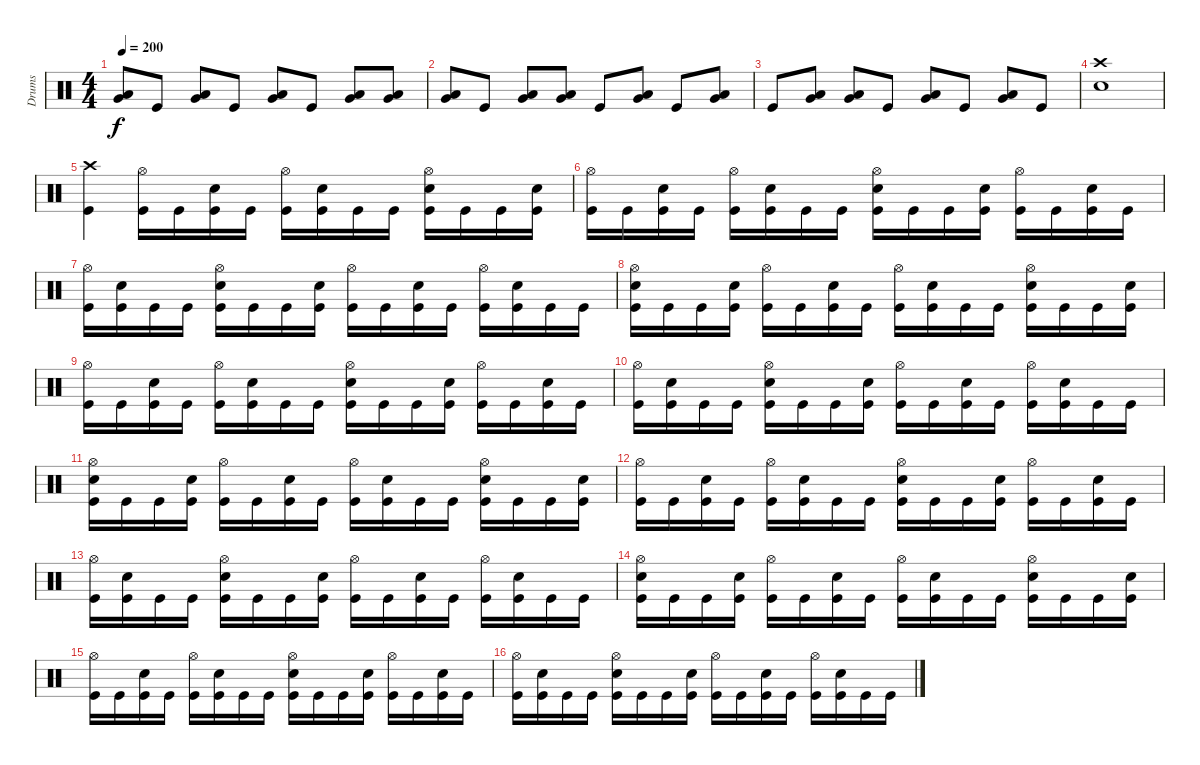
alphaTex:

\track ("Drums" "Drums") {instrument percussion}
\staff {score}
\articulation defaults
\ts (4 4)
\tempo 200
\clef neutral
\ks c
("Low Tom (hit)" "Very Low Tom (hit)").8{dy f} "Kick (hit)".8 ("Low Tom (hit)" "Very Low Tom (hit)").8 "Kick (hit)".8 ("Low Tom (hit)" "Very Low Tom (hit)").8 "Kick (hit)".8 ("Low Tom (hit)" "Very Low Tom (hit)").8 ("Low Tom (hit)" "Very Low Tom (hit)").8 |
("Low Tom (hit)" "Very Low Tom (hit)").8 "Kick (hit)".8 ("Low Tom (hit)" "Very Low Tom (hit)").8 ("Low Tom (hit)" "Very Low Tom (hit)").8 "Kick (hit)".8 ("Low Tom (hit)" "Very Low Tom (hit)").8 "Kick (hit)".8 ("Low Tom (hit)" "Very Low Tom (hit)").8 |
"Kick (hit)".8 ("Low Tom (hit)" "Very Low Tom (hit)").8 ("Low Tom (hit)" "Very Low Tom (hit)").8 "Kick (hit)".8 ("Low Tom (hit)" "Very Low Tom (hit)").8 "Kick (hit)".8 ("Low Tom (hit)" "Very Low Tom (hit)").8 "Kick (hit)".8 |
("Crash high (hit)" "Snare (hit) 2").1 |
("Crash high (hit)" "Kick (hit)").4 ("Hi-Hat (open)" "Kick (hit)").16 "Kick (hit)".16 ("Snare (hit) 2" "Kick (hit)").16 "Kick (hit)".16 ("Hi-Hat (open)" "Kick (hit)").16 ("Snare (hit) 2" "Kick (hit)").16 "Kick (hit)".16 "Kick (hit)".16 ("Hi-Hat (open)" "Snare (hit) 2" "Kick (hit)").16 "Kick (hit)".16 "Kick (hit)".16 ("Snare (hit) 2" "Kick (hit)").16 |
("Hi-Hat (open)" "Kick (hit)").16 "Kick (hit)".16 ("Snare (hit) 2" "Kick (hit)").16 "Kick (hit)".16 ("Hi-Hat (open)" "Kick (hit)").16 ("Snare (hit) 2" "Kick (hit)").16 "Kick (hit)".16 "Kick (hit)".16 ("Hi-Hat (open)" "Snare (hit) 2" "Kick (hit)").16 "Kick (hit)".16 "Kick (hit)".16 ("Snare (hit) 2" "Kick (hit)").16 ("Hi-Hat (open)" "Kick (hit)").16 "Kick (hit)".16 ("Snare (hit) 2" "Kick (hit)").16 "Kick (hit)".16 |
("Hi-Hat (open)" "Kick (hit)").16 ("Snare (hit) 2" "Kick (hit)").16 "Kick (hit)".16 "Kick (hit)".16 ("Hi-Hat (open)" "Snare (hit) 2" "Kick (hit)").16 "Kick (hit)".16 "Kick (hit)".16 ("Snare (hit) 2" "Kick (hit)").16 ("Hi-Hat (open)" "Kick (hit)").16 "Kick (hit)".16 ("Snare (hit) 2" "Kick (hit)").16 "Kick (hit)".16 ("Hi-Hat (open)" "Kick (hit)").16 ("Snare (hit) 2" "Kick (hit)").16 "Kick (hit)".16 "Kick (hit)".16 |
("Hi-Hat (open)" "Snare (hit) 2" "Kick (hit)").16 "Kick (hit)".16 "Kick (hit)".16 ("Snare (hit) 2" "Kick (hit)").16 ("Hi-Hat (open)" "Kick (hit)").16 "Kick (hit)".16 ("Snare (hit) 2" "Kick (hit)").16 "Kick (hit)".16 ("Hi-Hat (open)" "Kick (hit)").16 ("Snare (hit) 2" "Kick (hit)").16 "Kick (hit)".16 "Kick (hit)".16 ("Hi-Hat (open)" "Snare (hit) 2" "Kick (hit)").16 "Kick (hit)".16 "Kick (hit)".16 ("Snare (hit) 2" "Kick (hit)").16 |
("Hi-Hat (open)" "Kick (hit)").16 "Kick (hit)".16 ("Snare (hit) 2" "Kick (hit)").16 "Kick (hit)".16 ("Hi-Hat (open)" "Kick (hit)").16 ("Snare (hit) 2" "Kick (hit)").16 "Kick (hit)".16 "Kick (hit)".16 ("Hi-Hat (open)" "Snare (hit) 2" "Kick (hit)").16 "Kick (hit)".16 "Kick (hit)".16 ("Snare (hit) 2" "Kick (hit)").16 ("Hi-Hat (open)" "Kick (hit)").16 "Kick (hit)".16 ("Snare (hit) 2" "Kick (hit)").16 "Kick (hit)".16 |
("Hi-Hat (open)" "Kick (hit)").16 ("Snare (hit) 2" "Kick (hit)").16 "Kick (hit)".16 "Kick (hit)".16 ("Hi-Hat (open)" "Snare (hit) 2" "Kick (hit)").16 "Kick (hit)".16 "Kick (hit)".16 ("Snare (hit) 2" "Kick (hit)").16 ("Hi-Hat (open)" "Kick (hit)").16 "Kick (hit)".16 ("Snare (hit) 2" "Kick (hit)").16 "Kick (hit)".16 ("Hi-Hat (open)" "Kick (hit)").16 ("Snare (hit) 2" "Kick (hit)").16 "Kick (hit)".16 "Kick (hit)".16 |
("Hi-Hat (open)" "Snare (hit) 2" "Kick (hit)").16 "Kick (hit)".16 "Kick (hit)".16 ("Snare (hit) 2" "Kick (hit)").16 ("Hi-Hat (open)" "Kick (hit)").16 "Kick (hit)".16 ("Snare (hit) 2" "Kick (hit)").16 "Kick (hit)".16 ("Hi-Hat (open)" "Kick (hit)").16 ("Snare (hit) 2" "Kick (hit)").16 "Kick (hit)".16 "Kick (hit)".16 ("Hi-Hat (open)" "Snare (hit) 2" "Kick (hit)").16 "Kick (hit)".16 "Kick (hit)".16 ("Snare (hit) 2" "Kick (hit)").16 |
("Hi-Hat (open)" "Kick (hit)").16 "Kick (hit)".16 ("Snare (hit) 2" "Kick (hit)").16 "Kick (hit)".16 ("Hi-Hat (open)" "Kick (hit)").16 ("Snare (hit) 2" "Kick (hit)").16 "Kick (hit)".16 "Kick (hit)".16 ("Hi-Hat (open)" "Snare (hit) 2" "Kick (hit)").16 "Kick (hit)".16 "Kick (hit)".16 ("Snare (hit) 2" "Kick (hit)").16 ("Hi-Hat (open)" "Kick (hit)").16 "Kick (hit)".16 ("Snare (hit) 2" "Kick (hit)").16 "Kick (hit)".16 |
("Hi-Hat (open)" "Kick (hit)").16 ("Snare (hit) 2" "Kick (hit)").16 "Kick (hit)".16 "Kick (hit)".16 ("Hi-Hat (open)" "Snare (hit) 2" "Kick (hit)").16 "Kick (hit)".16 "Kick (hit)".16 ("Snare (hit) 2" "Kick (hit)").16 ("Hi-Hat (open)" "Kick (hit)").16 "Kick (hit)".16 ("Snare (hit) 2" "Kick (hit)").16 "Kick (hit)".16 ("Hi-Hat (open)" "Kick (hit)").16 ("Snare (hit) 2" "Kick (hit)").16 "Kick (hit)".16 "Kick (hit)".16 |
("Hi-Hat (open)" "Snare (hit) 2" "Kick (hit)").16 "Kick (hit)".16 "Kick (hit)".16 ("Snare (hit) 2" "Kick (hit)").16 ("Hi-Hat (open)" "Kick (hit)").16 "Kick (hit)".16 ("Snare (hit) 2" "Kick (hit)").16 "Kick (hit)".16 ("Hi-Hat (open)" "Kick (hit)").16 ("Snare (hit) 2" "Kick (hit)").16 "Kick (hit)".16 "Kick (hit)".16 ("Hi-Hat (open)" "Snare (hit) 2" "Kick (hit)").16 "Kick (hit)".16 "Kick (hit)".16 ("Snare (hit) 2" "Kick (hit)").16 |
("Hi-Hat (open)" "Kick (hit)").16 "Kick (hit)".16 ("Snare (hit) 2" "Kick (hit)").16 "Kick (hit)".16 ("Hi-Hat (open)" "Kick (hit)").16 ("Snare (hit) 2" "Kick (hit)").16 "Kick (hit)".16 "Kick (hit)".16 ("Hi-Hat (open)" "Snare (hit) 2" "Kick (hit)").16 "Kick (hit)".16 "Kick (hit)".16 ("Snare (hit) 2" "Kick (hit)").16 ("Hi-Hat (open)" "Kick (hit)").16 "Kick (hit)".16 ("Snare (hit) 2" "Kick (hit)").16 "Kick (hit)".16 |
("Hi-Hat (open)" "Kick (hit)").16 ("Snare (hit) 2" "Kick (hit)").16 "Kick (hit)".16 "Kick (hit)".16 ("Hi-Hat (open)" "Snare (hit) 2" "Kick (hit)").16 "Kick (hit)".16 "Kick (hit)".16 ("Snare (hit) 2" "Kick (hit)").16 ("Hi-Hat (open)" "Kick (hit)").16 "Kick (hit)".16 ("Snare (hit) 2" "Kick (hit)").16 "Kick (hit)".16 ("Hi-Hat (open)" "Kick (hit)").16 ("Snare (hit) 2" "Kick (hit)").16 "Kick (hit)".16 "Kick (hit)".16
